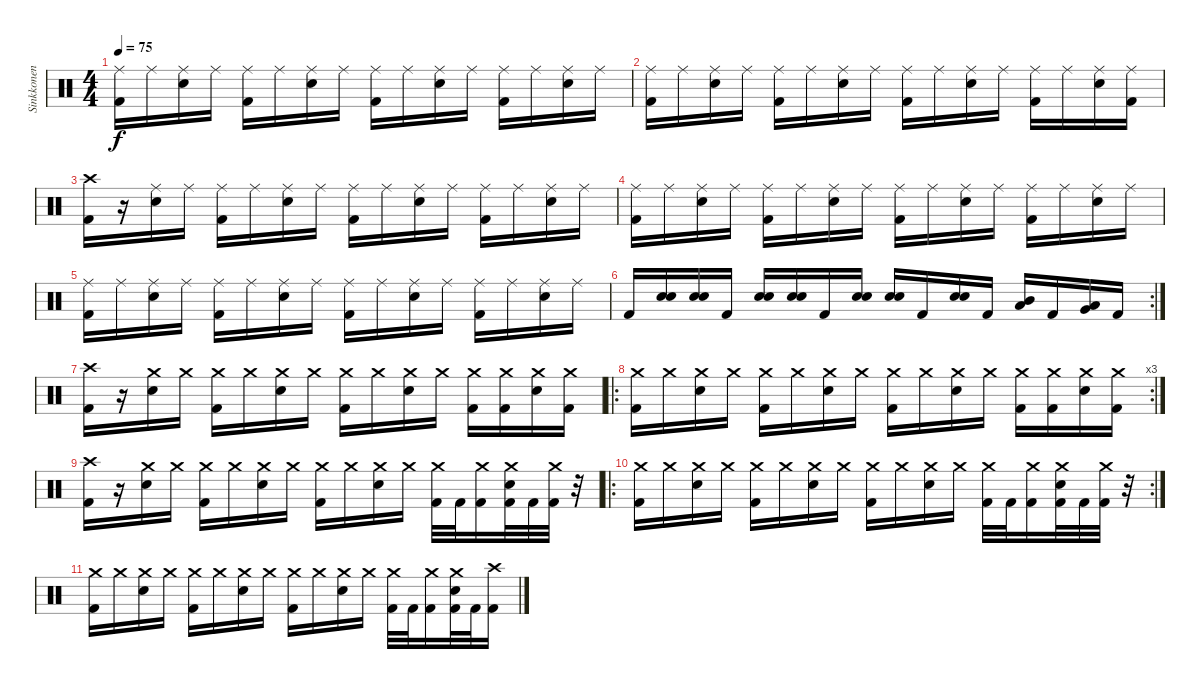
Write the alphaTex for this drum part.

\track ("Sinkkonen" "Sinkkonen") {instrument percussion}
\staff {score}
\articulation defaults
\ts (4 4)
\tempo 75
\clef neutral
\ks c
("Ride (middle)" "Kick (hit) 2").16{dy f} "Ride (middle)".16 ("Ride (middle)" "Electric Snare (hit)").16 "Ride (middle)".16 ("Ride (middle)" "Kick (hit) 2").16 "Ride (middle)".16 ("Ride (middle)" "Electric Snare (hit)").16 "Ride (middle)".16 ("Ride (middle)" "Kick (hit) 2").16 "Ride (middle)".16 ("Ride (middle)" "Electric Snare (hit)").16 "Ride (middle)".16 ("Ride (middle)" "Kick (hit) 2").16 "Ride (middle)".16 ("Ride (middle)" "Electric Snare (hit)").16 "Ride (middle)".16 |
("Ride (middle)" "Kick (hit) 2").16 "Ride (middle)".16 ("Ride (middle)" "Electric Snare (hit)").16 "Ride (middle)".16 ("Ride (middle)" "Kick (hit) 2").16 "Ride (middle)".16 ("Ride (middle)" "Electric Snare (hit)").16 "Ride (middle)".16 ("Ride (middle)" "Kick (hit) 2").16 "Ride (middle)".16 ("Ride (middle)" "Electric Snare (hit)").16 "Ride (middle)".16 ("Ride (middle)" "Kick (hit) 2").16 "Ride (middle)".16 ("Ride (middle)" "Electric Snare (hit)").16 ("Ride (middle)" "Kick (hit) 2").16 |
("Crash high (hit)" "Kick (hit) 2").16 r.16 ("Ride (middle)" "Electric Snare (hit)").16 "Ride (middle)".16 ("Ride (middle)" "Kick (hit) 2").16 "Ride (middle)".16 ("Ride (middle)" "Electric Snare (hit)").16 "Ride (middle)".16 ("Ride (middle)" "Kick (hit) 2").16 "Ride (middle)".16 ("Ride (middle)" "Electric Snare (hit)").16 "Ride (middle)".16 ("Ride (middle)" "Kick (hit) 2").16 "Ride (middle)".16 ("Ride (middle)" "Electric Snare (hit)").16 "Ride (middle)".16 |
("Ride (middle)" "Kick (hit) 2").16 "Ride (middle)".16 ("Ride (middle)" "Electric Snare (hit)").16 "Ride (middle)".16 ("Ride (middle)" "Kick (hit) 2").16 "Ride (middle)".16 ("Ride (middle)" "Electric Snare (hit)").16 "Ride (middle)".16 ("Ride (middle)" "Kick (hit) 2").16 "Ride (middle)".16 ("Ride (middle)" "Electric Snare (hit)").16 "Ride (middle)".16 ("Ride (middle)" "Kick (hit) 2").16 "Ride (middle)".16 ("Ride (middle)" "Electric Snare (hit)").16 "Ride (middle)".16 |
("Ride (middle)" "Kick (hit) 2").16 "Ride (middle)".16 ("Ride (middle)" "Electric Snare (hit)").16 "Ride (middle)".16 ("Ride (middle)" "Kick (hit) 2").16 "Ride (middle)".16 ("Ride (middle)" "Electric Snare (hit)").16 "Ride (middle)".16 ("Ride (middle)" "Kick (hit) 2").16 "Ride (middle)".16 ("Ride (middle)" "Electric Snare (hit)").16 "Ride (middle)".16 ("Ride (middle)" "Kick (hit) 2").16 "Ride (middle)".16 ("Ride (middle)" "Electric Snare (hit)").16 "Ride (middle)".16 |
\rc 2 "Kick (hit) 2".16
("Electric Snare (hit)" "Electric Snare (hit)").16 ("Electric Snare (hit)" "Electric Snare (hit)").16 "Kick (hit) 2".16 ("Electric Snare (hit)" "Electric Snare (hit)").16 ("Electric Snare (hit)" "Electric Snare (hit)").16 "Kick (hit) 2".16 ("Electric Snare (hit)" "Electric Snare (hit)").16 ("Electric Snare (hit)" "Electric Snare (hit)").16 "Kick (hit) 2".16 ("Electric Snare (hit)" "Electric Snare (hit)").16 "Kick (hit) 2".16 ("Mid Tom (hit)" "Low Tom (hit)").16 "Kick (hit) 2".16 ("Low Tom (hit)" "Very Low Tom (hit)").16 "Kick (hit) 2".16 |
("Crash high (hit)" "Kick (hit) 2").16 r.16 ("Crash medium (hit)" "Electric Snare (hit)").16 "Crash medium (hit)".16 ("Crash medium (hit)" "Kick (hit) 2").16 "Crash medium (hit)".16 ("Crash medium (hit)" "Electric Snare (hit)").16 "Crash medium (hit)".16 ("Crash medium (hit)" "Kick (hit) 2").16 "Crash medium (hit)".16 ("Crash medium (hit)" "Electric Snare (hit)").16 "Crash medium (hit)".16 ("Crash medium (hit)" "Kick (hit) 2").16 ("Crash medium (hit)" "Kick (hit) 2").16 ("Crash medium (hit)" "Electric Snare (hit)").16 ("Crash medium (hit)" "Kick (hit) 2").16 |
\ro
\rc 3
("Crash medium (hit)" "Kick (hit) 2").16 "Crash medium (hit)".16 ("Crash medium (hit)" "Electric Snare (hit)").16 "Crash medium (hit)".16 ("Crash medium (hit)" "Kick (hit) 2").16 "Crash medium (hit)".16 ("Crash medium (hit)" "Electric Snare (hit)").16 "Crash medium (hit)".16 ("Crash medium (hit)" "Kick (hit) 2").16 "Crash medium (hit)".16 ("Crash medium (hit)" "Electric Snare (hit)").16 "Crash medium (hit)".16 ("Crash medium (hit)" "Kick (hit) 2").16 ("Crash medium (hit)" "Kick (hit) 2").16 ("Crash medium (hit)" "Electric Snare (hit)").16 ("Crash medium (hit)" "Kick (hit) 2").16 |
("Crash high (hit)" "Kick (hit) 2").16 r.16 ("Crash medium (hit)" "Electric Snare (hit)").16 "Crash medium (hit)".16 ("Crash medium (hit)" "Kick (hit) 2").16 "Crash medium (hit)".16 ("Crash medium (hit)" "Electric Snare (hit)").16 "Crash medium (hit)".16 ("Crash medium (hit)" "Kick (hit) 2").16 "Crash medium (hit)".16 ("Crash medium (hit)" "Electric Snare (hit)").16 "Crash medium (hit)".16 ("Crash medium (hit)" "Kick (hit) 2").32 "Kick (hit) 2".32 ("Crash medium (hit)" "Kick (hit) 2").16 ("Crash medium (hit)" "Electric Snare (hit)" "Kick (hit) 2").32 "Kick (hit) 2".32 ("Crash medium (hit)" "Kick (hit) 2").32 r.32 |
\ro
\rc 2
("Crash medium (hit)" "Kick (hit) 2").16 "Crash medium (hit)".16 ("Crash medium (hit)" "Electric Snare (hit)").16 "Crash medium (hit)".16 ("Crash medium (hit)" "Kick (hit) 2").16 "Crash medium (hit)".16 ("Crash medium (hit)" "Electric Snare (hit)").16 "Crash medium (hit)".16 ("Crash medium (hit)" "Kick (hit) 2").16 "Crash medium (hit)".16 ("Crash medium (hit)" "Electric Snare (hit)").16 "Crash medium (hit)".16 ("Crash medium (hit)" "Kick (hit) 2").32 "Kick (hit) 2".32 ("Crash medium (hit)" "Kick (hit) 2").16 ("Crash medium (hit)" "Electric Snare (hit)" "Kick (hit) 2").32 "Kick (hit) 2".32 ("Crash medium (hit)" "Kick (hit) 2").32 r.32 |
("Crash medium (hit)" "Kick (hit) 2").16 "Crash medium (hit)".16 ("Crash medium (hit)" "Electric Snare (hit)").16 "Crash medium (hit)".16 ("Crash medium (hit)" "Kick (hit) 2").16 "Crash medium (hit)".16 ("Crash medium (hit)" "Electric Snare (hit)").16 "Crash medium (hit)".16 ("Crash medium (hit)" "Kick (hit) 2").16 "Crash medium (hit)".16 ("Crash medium (hit)" "Electric Snare (hit)").16 "Crash medium (hit)".16 ("Crash medium (hit)" "Kick (hit) 2").32 "Kick (hit) 2".32 ("Crash medium (hit)" "Kick (hit) 2").16 ("Crash medium (hit)" "Electric Snare (hit)" "Kick (hit) 2").32 "Kick (hit) 2".32 ("Crash high (hit)" "Kick (hit) 2").16
